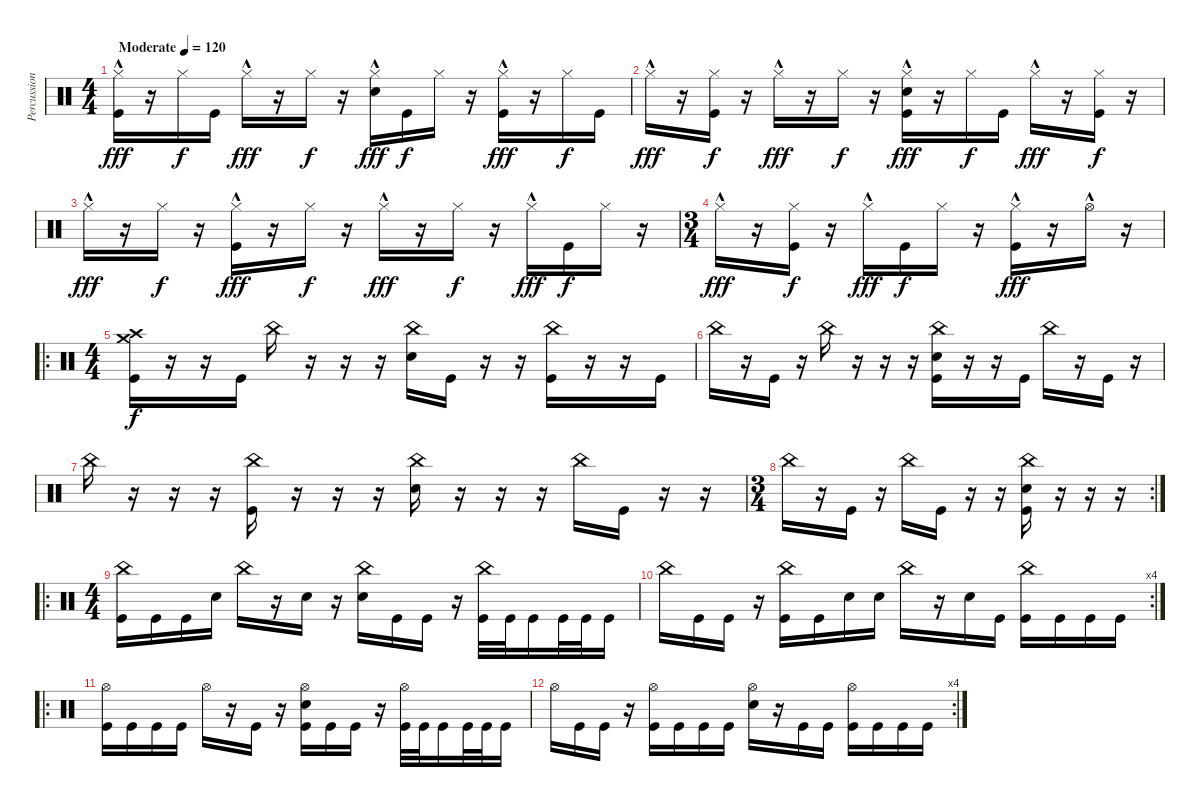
\track ("Percussion" "Percussion") {instrument percussion}
\staff {score}
\articulation defaults
\ts (4 4)
\tempo (120 "Moderate")
\clef neutral
\ks c
("Hi-Hat (closed)"{hac} "Kick (hit)").16{dy fff} r.16 "Hi-Hat (closed)".16{dy f} "Kick (hit)".16 "Hi-Hat (closed)"{hac}.16{dy fff} r.16 "Hi-Hat (closed)".16{dy f} r.16 ("Hi-Hat (closed)"{hac} "Snare (hit) 2").16{dy fff} "Kick (hit)".16{dy f} "Hi-Hat (closed)".16 r.16 ("Hi-Hat (closed)"{hac} "Kick (hit)").16{dy fff} r.16 "Hi-Hat (closed)".16{dy f} "Kick (hit)".16 |
"Hi-Hat (closed)"{hac}.16{dy fff} r.16 ("Hi-Hat (closed)" "Kick (hit)").16{dy f} r.16 "Hi-Hat (closed)"{hac}.16{dy fff} r.16 "Hi-Hat (closed)".16{dy f} r.16 ("Hi-Hat (closed)"{hac} "Snare (hit) 2" "Kick (hit)").16{dy fff} r.16 "Hi-Hat (closed)".16{dy f} "Kick (hit)".16 "Hi-Hat (closed)"{hac}.16{dy fff} r.16 ("Hi-Hat (closed)" "Kick (hit)").16{dy f} r.16 |
"Hi-Hat (closed)"{hac}.16{dy fff} r.16 "Hi-Hat (closed)".16{dy f} r.16 ("Hi-Hat (closed)"{hac} "Kick (hit)").16{dy fff} r.16 "Hi-Hat (closed)".16{dy f} r.16 "Hi-Hat (closed)"{hac}.16{dy fff} r.16 "Hi-Hat (closed)".16{dy f} r.16 "Hi-Hat (closed)"{hac}.16{dy fff} "Kick (hit)".16{dy f} "Hi-Hat (closed)".16 r.16 |
\ts (3 4)
"Hi-Hat (closed)"{hac}.16{dy fff} r.16 ("Hi-Hat (closed)" "Kick (hit)").16{dy f} r.16 "Hi-Hat (closed)"{hac}.16{dy fff} "Kick (hit)".16{dy f} "Hi-Hat (closed)".16 r.16 ("Hi-Hat (closed)"{hac} "Kick (hit)").16{dy fff} r.16 "Hi-Hat (open)"{hac}.16 r.16 |
\ro
\ts (4 4)
("Crash medium (hit)" "Crash high (hit)" "Kick (hit)").16{dy f} r.16 r.16 "Kick (hit)".16 "China (hit)".16 r.16 r.16 r.16 ("China (hit)" "Snare (hit) 2").16 "Kick (hit)".16 r.16 r.16 ("China (hit)" "Kick (hit)").16 r.16 r.16 "Kick (hit)".16 |
"China (hit)".16 r.16 "Kick (hit)".16 r.16 "China (hit)".16 r.16 r.16 r.16 ("China (hit)" "Snare (hit) 2" "Kick (hit)").16 r.16 r.16 "Kick (hit)".16 "China (hit)".16 r.16 "Kick (hit)".16 r.16 |
"China (hit)".16 r.16 r.16 r.16 ("China (hit)" "Kick (hit)").16 r.16 r.16 r.16 ("China (hit)" "Snare (hit) 2").16 r.16 r.16 r.16 "China (hit)".16 "Kick (hit)".16 r.16 r.16 |
\rc 2
\ts (3 4)
"China (hit)".16 r.16 "Kick (hit)".16 r.16 "China (hit)".16 "Kick (hit)".16 r.16 r.16 ("China (hit)" "Snare (hit) 2" "Kick (hit)").16 r.16 r.16 r.16 |
\ro
\ts (4 4)
("China (hit)" "Kick (hit)").16 "Kick (hit)".16 "Kick (hit)".16 "Snare (hit) 2".16 "China (hit)".16 r.16 "Snare (hit) 2".16 r.16 ("China (hit)" "Snare (hit) 2").16 "Kick (hit)".16 "Kick (hit)".16 r.16 ("China (hit)" "Kick (hit)").32 "Kick (hit)".32 "Kick (hit)".16 "Kick (hit)".32 "Kick (hit)".32 "Kick (hit)".16 |
\rc 4 "China (hit)".16 "Kick (hit)".16 "Kick (hit)".16
r.16 ("China (hit)" "Kick (hit)").16 "Kick (hit)".16 "Snare (hit) 2".16 "Snare (hit) 2".16 "China (hit)".16 r.16 "Snare (hit) 2".16 "Kick (hit)".16 ("China (hit)" "Kick (hit)").16 "Kick (hit)".16 "Kick (hit)".16 "Kick (hit)".16 |
\ro
("Hi-Hat (open)" "Kick (hit)").16 "Kick (hit)".16 "Kick (hit)".16 "Kick (hit)".16 "Hi-Hat (open)".16 r.16 "Kick (hit)".16 r.16 ("Hi-Hat (open)" "Snare (hit) 2" "Kick (hit)").16 "Kick (hit)".16 "Kick (hit)".16 r.16 ("Hi-Hat (open)" "Kick (hit)").32 "Kick (hit)".32 "Kick (hit)".16 "Kick (hit)".32 "Kick (hit)".32 "Kick (hit)".16 |
\rc 4 "Hi-Hat (open)".16 "Kick (hit)".16 "Kick (hit)".16
r.16 ("Hi-Hat (open)" "Kick (hit)").16 "Kick (hit)".16 "Kick (hit)".16 "Kick (hit)".16 ("Hi-Hat (open)" "Snare (hit) 2").16 r.16 "Kick (hit)".16 "Kick (hit)".16 ("Hi-Hat (open)" "Kick (hit)").16 "Kick (hit)".16 "Kick (hit)".16 "Kick (hit)".16
